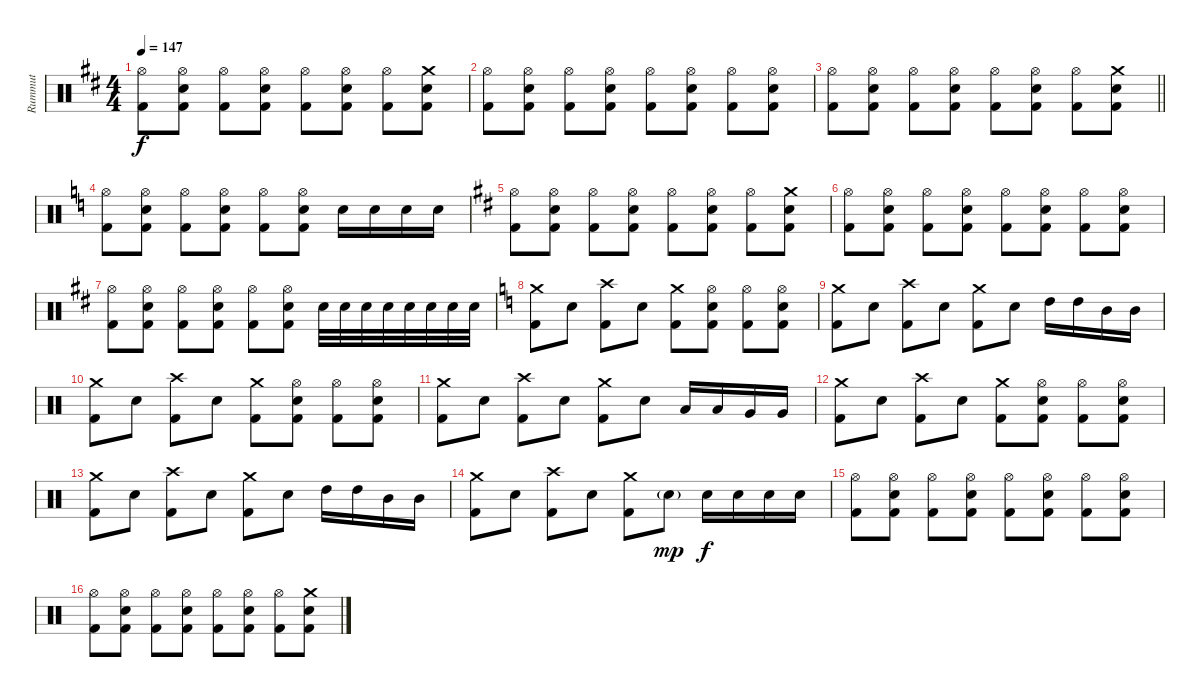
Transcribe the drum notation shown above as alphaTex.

\track ("Rummut" "Rummut") {instrument percussion}
\staff {score}
\articulation defaults
\ts (4 4)
\tempo 147
\clef neutral
\ks d
("Hi-Hat (open)" "Kick (hit) 2").8{dy f} ("Hi-Hat (open)" "Electric Snare (hit)" "Kick (hit) 2").8 ("Hi-Hat (open)" "Kick (hit) 2").8 ("Hi-Hat (open)" "Electric Snare (hit)" "Kick (hit) 2").8 ("Hi-Hat (open)" "Kick (hit) 2").8 ("Hi-Hat (open)" "Electric Snare (hit)" "Kick (hit) 2").8 ("Hi-Hat (open)" "Kick (hit) 2").8 ("Crash medium (hit)" "Electric Snare (hit)" "Kick (hit) 2").8 |
("Hi-Hat (open)" "Kick (hit) 2").8 ("Hi-Hat (open)" "Electric Snare (hit)" "Kick (hit) 2").8 ("Hi-Hat (open)" "Kick (hit) 2").8 ("Hi-Hat (open)" "Electric Snare (hit)" "Kick (hit) 2").8 ("Hi-Hat (open)" "Kick (hit) 2").8 ("Hi-Hat (open)" "Electric Snare (hit)" "Kick (hit) 2").8 ("Hi-Hat (open)" "Kick (hit) 2").8 ("Hi-Hat (open)" "Electric Snare (hit)" "Kick (hit) 2").8 |
\barLineRight lightlight
("Hi-Hat (open)" "Kick (hit) 2").8 ("Hi-Hat (open)" "Electric Snare (hit)" "Kick (hit) 2").8 ("Hi-Hat (open)" "Kick (hit) 2").8 ("Hi-Hat (open)" "Electric Snare (hit)" "Kick (hit) 2").8 ("Hi-Hat (open)" "Kick (hit) 2").8 ("Hi-Hat (open)" "Electric Snare (hit)" "Kick (hit) 2").8 ("Hi-Hat (open)" "Kick (hit) 2").8 ("Crash medium (hit)" "Electric Snare (hit)" "Kick (hit) 2").8 |
\ks c
("Hi-Hat (open)" "Kick (hit) 2").8 ("Hi-Hat (open)" "Electric Snare (hit)" "Kick (hit) 2").8 ("Hi-Hat (open)" "Kick (hit) 2").8 ("Hi-Hat (open)" "Electric Snare (hit)" "Kick (hit) 2").8 ("Hi-Hat (open)" "Kick (hit) 2").8 ("Hi-Hat (open)" "Electric Snare (hit)" "Kick (hit) 2").8 "Electric Snare (hit)".16 "Electric Snare (hit)".16 "Electric Snare (hit)".16 "Electric Snare (hit)".16 |
\ks d
("Hi-Hat (open)" "Kick (hit) 2").8 ("Hi-Hat (open)" "Electric Snare (hit)" "Kick (hit) 2").8 ("Hi-Hat (open)" "Kick (hit) 2").8 ("Hi-Hat (open)" "Electric Snare (hit)" "Kick (hit) 2").8 ("Hi-Hat (open)" "Kick (hit) 2").8 ("Hi-Hat (open)" "Electric Snare (hit)" "Kick (hit) 2").8 ("Hi-Hat (open)" "Kick (hit) 2").8 ("Crash medium (hit)" "Electric Snare (hit)" "Kick (hit) 2").8 |
("Hi-Hat (open)" "Kick (hit) 2").8 ("Hi-Hat (open)" "Electric Snare (hit)" "Kick (hit) 2").8 ("Hi-Hat (open)" "Kick (hit) 2").8 ("Hi-Hat (open)" "Electric Snare (hit)" "Kick (hit) 2").8 ("Hi-Hat (open)" "Kick (hit) 2").8 ("Hi-Hat (open)" "Electric Snare (hit)" "Kick (hit) 2").8 ("Hi-Hat (open)" "Kick (hit) 2").8 ("Hi-Hat (open)" "Electric Snare (hit)" "Kick (hit) 2").8 |
("Hi-Hat (open)" "Kick (hit) 2").8 ("Hi-Hat (open)" "Electric Snare (hit)" "Kick (hit) 2").8 ("Hi-Hat (open)" "Kick (hit) 2").8 ("Hi-Hat (open)" "Electric Snare (hit)" "Kick (hit) 2").8 ("Hi-Hat (open)" "Kick (hit) 2").8 ("Hi-Hat (open)" "Electric Snare (hit)" "Kick (hit) 2").8 "Electric Snare (hit)".32 "Electric Snare (hit)".32 "Electric Snare (hit)".32 "Electric Snare (hit)".32 "Electric Snare (hit)".32 "Electric Snare (hit)".32 "Electric Snare (hit)".32 "Electric Snare (hit)".32 |
\ks c
("Crash medium (hit)" "Kick (hit) 2").8 "Electric Snare (hit)".8 ("Crash high (hit)" "Kick (hit) 2").8 "Electric Snare (hit)".8 ("Crash medium (hit)" "Kick (hit) 2").8 ("Hi-Hat (open)" "Electric Snare (hit)" "Kick (hit) 2").8 ("Hi-Hat (open)" "Kick (hit) 2").8 ("Hi-Hat (open)" "Electric Snare (hit)" "Kick (hit) 2").8 |
("Crash medium (hit)" "Kick (hit) 2").8 "Electric Snare (hit)".8 ("Crash high (hit)" "Kick (hit) 2").8 "Electric Snare (hit)".8 ("Crash medium (hit)" "Kick (hit) 2").8 "Electric Snare (hit)".8 "High Tom (hit)".16 "High Tom (hit)".16 "Mid Tom (hit)".16 "Mid Tom (hit)".16 |
("Crash medium (hit)" "Kick (hit) 2").8 "Electric Snare (hit)".8 ("Crash high (hit)" "Kick (hit) 2").8 "Electric Snare (hit)".8 ("Crash medium (hit)" "Kick (hit) 2").8 ("Hi-Hat (open)" "Electric Snare (hit)" "Kick (hit) 2").8 ("Hi-Hat (open)" "Kick (hit) 2").8 ("Hi-Hat (open)" "Electric Snare (hit)" "Kick (hit) 2").8 |
("Crash medium (hit)" "Kick (hit) 2").8 "Electric Snare (hit)".8 ("Crash high (hit)" "Kick (hit) 2").8 "Electric Snare (hit)".8 ("Crash medium (hit)" "Kick (hit) 2").8 "Electric Snare (hit)".8 "Low Tom (hit)".16 "Low Tom (hit)".16 "Very Low Tom (hit)".16 "Very Low Tom (hit)".16 |
("Crash medium (hit)" "Kick (hit) 2").8 "Electric Snare (hit)".8 ("Crash high (hit)" "Kick (hit) 2").8 "Electric Snare (hit)".8 ("Crash medium (hit)" "Kick (hit) 2").8 ("Hi-Hat (open)" "Electric Snare (hit)" "Kick (hit) 2").8 ("Hi-Hat (open)" "Kick (hit) 2").8 ("Hi-Hat (open)" "Electric Snare (hit)" "Kick (hit) 2").8 |
("Crash medium (hit)" "Kick (hit) 2").8 "Electric Snare (hit)".8 ("Crash high (hit)" "Kick (hit) 2").8 "Electric Snare (hit)".8 ("Crash medium (hit)" "Kick (hit) 2").8 "Electric Snare (hit)".8 "High Tom (hit)".16 "High Tom (hit)".16 "Mid Tom (hit)".16 "Mid Tom (hit)".16 |
("Crash medium (hit)" "Kick (hit) 2").8 "Electric Snare (hit)".8 ("Crash high (hit)" "Kick (hit) 2").8 "Electric Snare (hit)".8 ("Crash medium (hit)" "Kick (hit) 2").8 "Electric Snare (hit)"{g}.8{dy mp} "Electric Snare (hit)".16{dy f} "Electric Snare (hit)".16 "Electric Snare (hit)".16 "Electric Snare (hit)".16 |
("Hi-Hat (open)" "Kick (hit) 2").8 ("Hi-Hat (open)" "Electric Snare (hit)" "Kick (hit) 2").8 ("Hi-Hat (open)" "Kick (hit) 2").8 ("Hi-Hat (open)" "Electric Snare (hit)" "Kick (hit) 2").8 ("Hi-Hat (open)" "Kick (hit) 2").8 ("Hi-Hat (open)" "Electric Snare (hit)" "Kick (hit) 2").8 ("Hi-Hat (open)" "Kick (hit) 2").8 ("Hi-Hat (open)" "Electric Snare (hit)" "Kick (hit) 2").8 |
("Hi-Hat (open)" "Kick (hit) 2").8 ("Hi-Hat (open)" "Electric Snare (hit)" "Kick (hit) 2").8 ("Hi-Hat (open)" "Kick (hit) 2").8 ("Hi-Hat (open)" "Electric Snare (hit)" "Kick (hit) 2").8 ("Hi-Hat (open)" "Kick (hit) 2").8 ("Hi-Hat (open)" "Electric Snare (hit)" "Kick (hit) 2").8 ("Hi-Hat (open)" "Kick (hit) 2").8 ("Crash medium (hit)" "Electric Snare (hit)" "Kick (hit) 2").8
